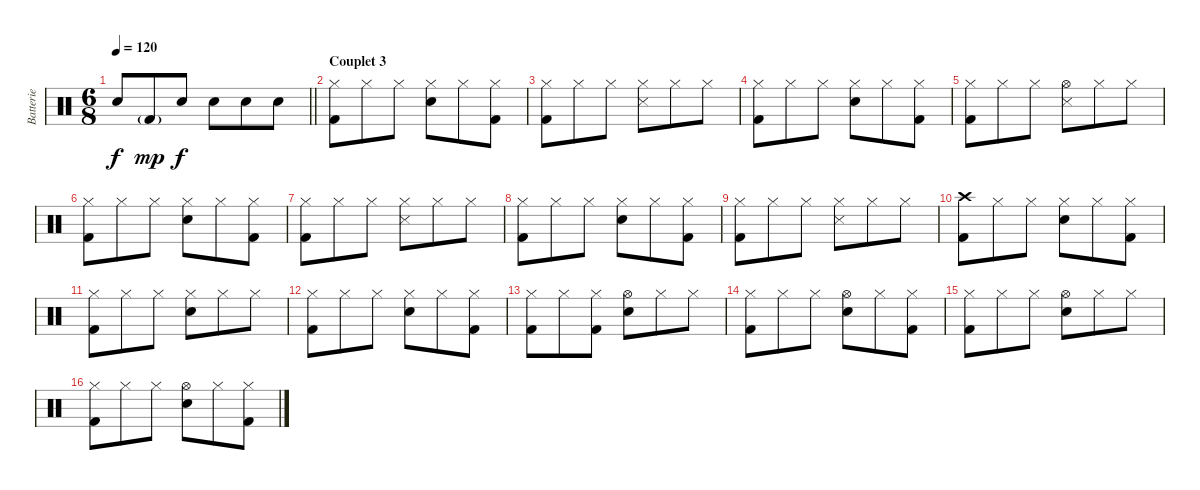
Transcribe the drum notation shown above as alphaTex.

\track ("Batterie" "Batterie") {instrument percussion}
\staff {score}
\articulation defaults
\ts (6 8)
\tempo 120
\clef neutral
\barLineRight lightlight
\ks c "Snare (hit) 2".8{dy f} "Kick (hit) 2"{g}.8{dy mp} "Snare (hit) 2".8{dy f} "Snare (hit) 2".8 "Snare (hit) 2".8 "Snare (hit) 2".8
|
\section ("" "Couplet 3")
("Hi-Hat (closed)" "Kick (hit) 2").8 "Hi-Hat (closed)".8 "Hi-Hat (closed)".8 ("Hi-Hat (closed)" "Snare (hit) 2").8 "Hi-Hat (closed)".8 ("Hi-Hat (closed)" "Kick (hit) 2").8 |
("Hi-Hat (closed)" "Kick (hit) 2").8 "Hi-Hat (closed)".8 "Hi-Hat (closed)".8 ("Hi-Hat (closed)" "Snare (side stick) 3").8 "Hi-Hat (closed)".8 "Hi-Hat (closed)".8 |
("Hi-Hat (closed)" "Kick (hit) 2").8 "Hi-Hat (closed)".8 "Hi-Hat (closed)".8 ("Hi-Hat (closed)" "Snare (hit) 2").8 "Hi-Hat (closed)".8 ("Hi-Hat (closed)" "Kick (hit) 2").8 |
("Hi-Hat (closed)" "Kick (hit) 2").8 "Hi-Hat (closed)".8 "Hi-Hat (closed)".8 ("Hi-Hat (open)" "Snare (side stick) 3").8 "Hi-Hat (closed)".8 "Hi-Hat (closed)".8 |
("Hi-Hat (closed)" "Kick (hit) 2").8 "Hi-Hat (closed)".8 "Hi-Hat (closed)".8 ("Hi-Hat (closed)" "Snare (hit) 2").8 "Hi-Hat (closed)".8 ("Hi-Hat (closed)" "Kick (hit) 2").8 |
("Hi-Hat (closed)" "Kick (hit) 2").8 "Hi-Hat (closed)".8 "Hi-Hat (closed)".8 ("Hi-Hat (closed)" "Snare (side stick) 3").8 "Hi-Hat (closed)".8 "Hi-Hat (closed)".8 |
("Hi-Hat (closed)" "Kick (hit) 2").8 "Hi-Hat (closed)".8 "Hi-Hat (closed)".8 ("Hi-Hat (closed)" "Snare (hit) 2").8 "Hi-Hat (closed)".8 ("Hi-Hat (closed)" "Kick (hit) 2").8 |
("Hi-Hat (closed)" "Kick (hit) 2").8 "Hi-Hat (closed)".8 "Hi-Hat (closed)".8 ("Hi-Hat (closed)" "Snare (side stick) 3").8 "Hi-Hat (closed)".8 "Hi-Hat (closed)".8 |
("Crash high (hit)" "Kick (hit) 2").8 "Hi-Hat (closed)".8 "Hi-Hat (closed)".8 ("Hi-Hat (closed)" "Snare (hit) 2").8 "Hi-Hat (closed)".8 ("Hi-Hat (closed)" "Kick (hit) 2").8 |
("Hi-Hat (closed)" "Kick (hit) 2").8 "Hi-Hat (closed)".8 "Hi-Hat (closed)".8 ("Hi-Hat (closed)" "Snare (hit) 2").8 "Hi-Hat (closed)".8 "Hi-Hat (closed)".8 |
("Hi-Hat (closed)" "Kick (hit) 2").8 "Hi-Hat (closed)".8 "Hi-Hat (closed)".8 ("Hi-Hat (closed)" "Snare (hit) 2").8 "Hi-Hat (closed)".8 ("Hi-Hat (closed)" "Kick (hit) 2").8 |
("Hi-Hat (closed)" "Kick (hit) 2").8 "Hi-Hat (closed)".8 ("Hi-Hat (closed)" "Kick (hit) 2").8 ("Hi-Hat (open)" "Snare (hit) 2").8 "Hi-Hat (closed)".8 "Hi-Hat (closed)".8 |
("Hi-Hat (closed)" "Kick (hit) 2").8 "Hi-Hat (closed)".8 "Hi-Hat (closed)".8 ("Hi-Hat (open)" "Snare (hit) 2").8 "Hi-Hat (closed)".8 ("Hi-Hat (closed)" "Kick (hit) 2").8 |
("Hi-Hat (closed)" "Kick (hit) 2").8 "Hi-Hat (closed)".8 "Hi-Hat (closed)".8 ("Hi-Hat (open)" "Snare (hit) 2").8 "Hi-Hat (closed)".8 "Hi-Hat (closed)".8 |
("Hi-Hat (closed)" "Kick (hit) 2").8 "Hi-Hat (closed)".8 "Hi-Hat (closed)".8 ("Hi-Hat (open)" "Snare (hit) 2").8 "Hi-Hat (closed)".8 ("Hi-Hat (closed)" "Kick (hit) 2").8
